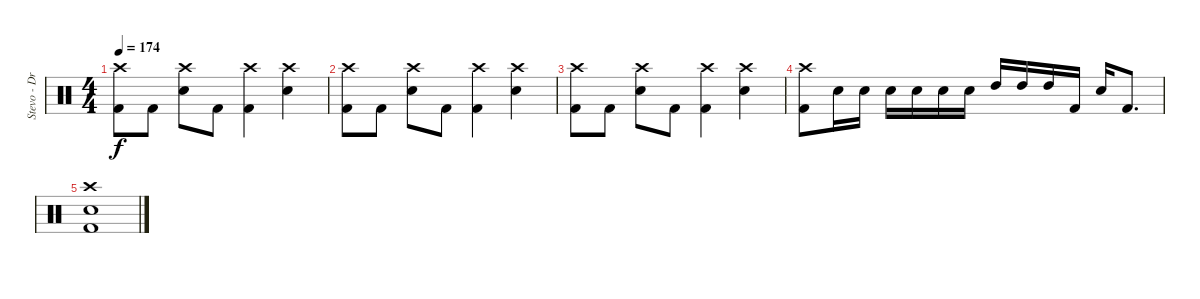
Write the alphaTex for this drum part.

\track ("Stevo - Drums" "Stevo - Dr") {instrument percussion}
\staff {score}
\articulation defaults
\ts (4 4)
\tempo 174
\clef neutral
\ks c
("Crash high (hit)" "Kick (hit) 2").8{dy f} "Kick (hit) 2".8 ("Crash high (hit)" "Electric Snare (hit)").8 "Kick (hit) 2".8 ("Crash high (hit)" "Kick (hit) 2").4 ("Crash high (hit)" "Electric Snare (hit)").4 |
("Crash high (hit)" "Kick (hit) 2").8 "Kick (hit) 2".8 ("Crash high (hit)" "Electric Snare (hit)").8 "Kick (hit) 2".8 ("Crash high (hit)" "Kick (hit) 2").4 ("Crash high (hit)" "Electric Snare (hit)").4 |
("Crash high (hit)" "Kick (hit) 2").8 "Kick (hit) 2".8 ("Crash high (hit)" "Electric Snare (hit)").8 "Kick (hit) 2".8 ("Crash high (hit)" "Kick (hit) 2").4 ("Crash high (hit)" "Electric Snare (hit)").4 |
("Crash high (hit)" "Kick (hit) 2").8 "Electric Snare (hit)".16 "Electric Snare (hit)".16 "Electric Snare (hit)".16 "Electric Snare (hit)".16 "Electric Snare (hit)".16 "Electric Snare (hit)".16 "High Tom (hit)".16 "High Tom (hit)".16 "High Tom (hit)".16 "Kick (hit) 2".16 "Electric Snare (hit)".16 "Kick (hit) 2".8{d} |
("Crash high (hit)" "Electric Snare (hit)" "Kick (hit) 2").1
